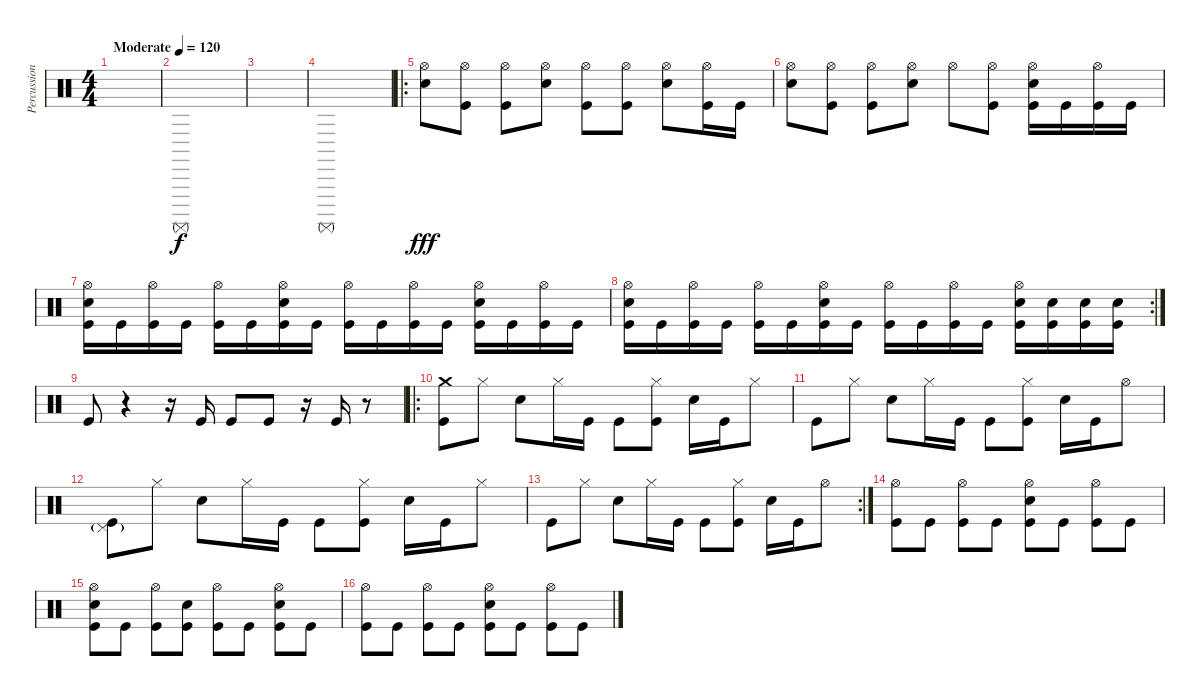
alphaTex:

\track ("Percussion" "Percussion") {instrument percussion}
\staff {score}
\articulation defaults
\ts (4 4)
\tempo (120 "Moderate")
\clef neutral
\ks c
|
"Surdo (mute)".1 |
|
"Surdo (mute)".1 |
\ro
("Hi-Hat (open)" "Electric Snare (hit)").8{dy fff} ("Hi-Hat (open)" "Kick (hit)").8 ("Hi-Hat (open)" "Kick (hit)").8 ("Hi-Hat (open)" "Electric Snare (hit)").8 ("Hi-Hat (open)" "Kick (hit)").8 ("Hi-Hat (open)" "Kick (hit)").8 ("Hi-Hat (open)" "Electric Snare (hit)").8 ("Hi-Hat (open)" "Kick (hit)").16 "Kick (hit)".16 |
("Hi-Hat (open)" "Electric Snare (hit)").8 ("Hi-Hat (open)" "Kick (hit)").8 ("Hi-Hat (open)" "Kick (hit)").8 ("Hi-Hat (open)" "Electric Snare (hit)").8 "Hi-Hat (open)".8 ("Hi-Hat (open)" "Kick (hit)").8 ("Hi-Hat (open)" "Electric Snare (hit)" "Kick (hit)").16 "Kick (hit)".16 ("Hi-Hat (open)" "Kick (hit)").16 "Kick (hit)".16 |
("Hi-Hat (open)" "Electric Snare (hit)" "Kick (hit)").16 "Kick (hit)".16 ("Hi-Hat (open)" "Kick (hit)").16 "Kick (hit)".16 ("Hi-Hat (open)" "Kick (hit)").16 "Kick (hit)".16 ("Hi-Hat (open)" "Electric Snare (hit)" "Kick (hit)").16 "Kick (hit)".16 ("Hi-Hat (open)" "Kick (hit)").16 "Kick (hit)".16 ("Hi-Hat (open)" "Kick (hit)").16 "Kick (hit)".16 ("Hi-Hat (open)" "Electric Snare (hit)" "Kick (hit)").16 "Kick (hit)".16 ("Hi-Hat (open)" "Kick (hit)").16 "Kick (hit)".16 |
\rc 2
("Hi-Hat (open)" "Electric Snare (hit)" "Kick (hit)").16 "Kick (hit)".16 ("Hi-Hat (open)" "Kick (hit)").16 "Kick (hit)".16 ("Hi-Hat (open)" "Kick (hit)").16 "Kick (hit)".16 ("Hi-Hat (open)" "Electric Snare (hit)" "Kick (hit)").16 "Kick (hit)".16 ("Hi-Hat (open)" "Kick (hit)").16 "Kick (hit)".16 ("Hi-Hat (open)" "Kick (hit)").16 "Kick (hit)".16 ("Hi-Hat (open)" "Electric Snare (hit)" "Kick (hit)").16 ("Electric Snare (hit)" "Kick (hit)").16 ("Electric Snare (hit)" "Kick (hit)").16 ("Electric Snare (hit)" "Kick (hit)").16 |
"Kick (hit)".8 r.4 r.16 "Kick (hit)".16 "Kick (hit)".8 "Kick (hit)".8 r.16 "Kick (hit)".16 r.8 |
\ro
("Crash medium (hit)" "Kick (hit)").8 "Hi-Hat (closed)".8 "Electric Snare (hit)".8 "Hi-Hat (closed)".16 "Kick (hit)".16 "Kick (hit)".8 ("Hi-Hat (closed)" "Kick (hit)").8 "Electric Snare (hit)".16 "Kick (hit)".16 "Hi-Hat (closed)".8 |
"Kick (hit)".8 "Hi-Hat (closed)".8 "Electric Snare (hit)".8 "Hi-Hat (closed)".16 "Kick (hit)".16 "Kick (hit)".8 ("Hi-Hat (closed)" "Kick (hit)").8 "Electric Snare (hit)".16 "Kick (hit)".16 "Hi-Hat (open)".8 |
("Pedal Hi-Hat (hit)"{g} "Kick (hit)").8 "Hi-Hat (closed)".8 "Electric Snare (hit)".8 "Hi-Hat (closed)".16 "Kick (hit)".16 "Kick (hit)".8 ("Hi-Hat (closed)" "Kick (hit)").8 "Electric Snare (hit)".16 "Kick (hit)".16 "Hi-Hat (closed)".8 |
\rc 2 "Kick (hit)".8 "Hi-Hat (closed)".8 "Electric Snare (hit)".8 "Hi-Hat (closed)".16 "Kick (hit)".16 "Kick (hit)".8
("Hi-Hat (closed)" "Kick (hit)").8 "Electric Snare (hit)".16 "Kick (hit)".16 "Hi-Hat (open)".8 |
("Hi-Hat (open)" "Kick (hit)").8 "Kick (hit)".8 ("Hi-Hat (open)" "Kick (hit)").8 "Kick (hit)".8 ("Hi-Hat (open)" "Electric Snare (hit)" "Kick (hit)").8 "Kick (hit)".8 ("Hi-Hat (open)" "Kick (hit)").8 "Kick (hit)".8 |
("Hi-Hat (open)" "Electric Snare (hit)" "Kick (hit)").8 "Kick (hit)".8 ("Hi-Hat (open)" "Kick (hit)").8 ("Electric Snare (hit)" "Kick (hit)").8 ("Hi-Hat (open)" "Kick (hit)").8 "Kick (hit)".8 ("Hi-Hat (open)" "Electric Snare (hit)" "Kick (hit)").8 "Kick (hit)".8 |
("Hi-Hat (open)" "Kick (hit)").8 "Kick (hit)".8 ("Hi-Hat (open)" "Kick (hit)").8 "Kick (hit)".8 ("Hi-Hat (open)" "Electric Snare (hit)" "Kick (hit)").8 "Kick (hit)".8 ("Hi-Hat (open)" "Kick (hit)").8 "Kick (hit)".8
